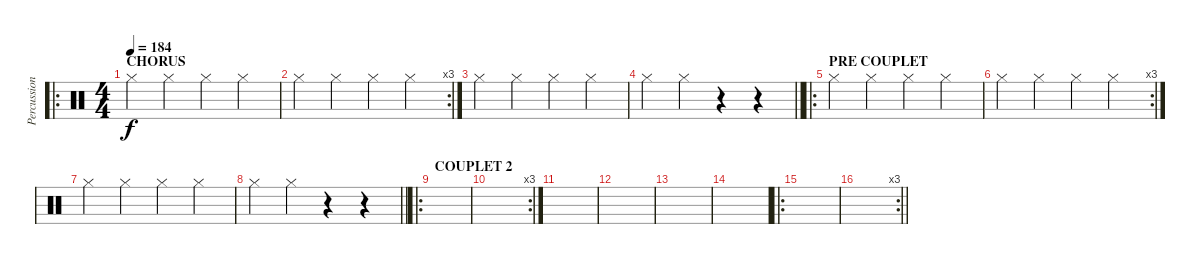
\track ("Percussions" "Percussion") {instrument percussion}
\staff {score}
\articulation defaults
\ro
\ts (4 4)
\section ("" "CHORUS")
\tempo 184
\clef neutral
\ks c "Hi-Hat (closed)".4{dy f} "Hi-Hat (closed)".4 "Hi-Hat (closed)".4 "Hi-Hat (closed)".4
|
\rc 3 "Hi-Hat (closed)".4 "Hi-Hat (closed)".4 "Hi-Hat (closed)".4 "Hi-Hat (closed)".4
|
"Hi-Hat (closed)".4 "Hi-Hat (closed)".4 "Hi-Hat (closed)".4 "Hi-Hat (closed)".4 |
\barLineRight lightlight "Hi-Hat (closed)".4 "Hi-Hat (closed)".4
r.4 r.4 |
\ro
\section ("" "PRE COUPLET")
"Hi-Hat (closed)".4 "Hi-Hat (closed)".4 "Hi-Hat (closed)".4 "Hi-Hat (closed)".4 |
\rc 3 "Hi-Hat (closed)".4 "Hi-Hat (closed)".4 "Hi-Hat (closed)".4 "Hi-Hat (closed)".4
|
"Hi-Hat (closed)".4 "Hi-Hat (closed)".4 "Hi-Hat (closed)".4 "Hi-Hat (closed)".4 |
\barLineRight lightlight "Hi-Hat (closed)".4 "Hi-Hat (closed)".4
r.4 r.4 |
\ro
\section ("" "COUPLET 2")
|
\rc 3
|
|
|
|
|
\ro
|
\rc 3
\barLineRight lightlight
